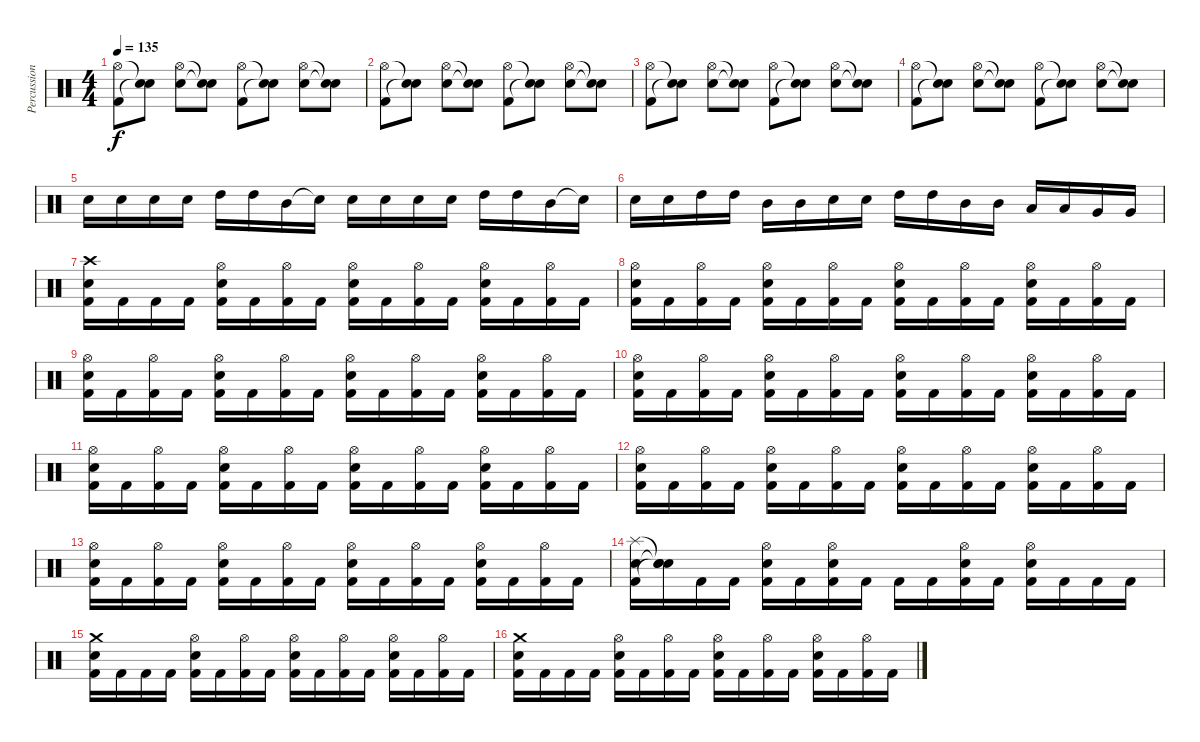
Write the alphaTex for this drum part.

\track ("Percussion" "Percussion") {instrument percussion}
\staff {score}
\articulation defaults
\ts (4 4)
\tempo 135
\clef neutral
\ks c
("Hi-Hat (open)" "Kick (hit) 2").8{dy f} ("Snare (hit)"{t} "Snare (hit)"{t}).8 ("Hi-Hat (open)" "Snare (hit) 2").8 ("Snare (hit)"{t} "Snare (hit)"{t}).8 ("Hi-Hat (open)" "Kick (hit) 2").8 ("Snare (hit)"{t} "Snare (hit)"{t}).8 ("Hi-Hat (open)" "Snare (hit) 2").8 ("Snare (hit)"{t} "Snare (hit)"{t}).8 |
("Hi-Hat (open)" "Kick (hit) 2").8 ("Snare (hit)"{t} "Snare (hit)"{t}).8 ("Hi-Hat (open)" "Snare (hit) 2").8 ("Snare (hit)"{t} "Snare (hit)"{t}).8 ("Hi-Hat (open)" "Kick (hit) 2").8 ("Snare (hit)"{t} "Snare (hit)"{t}).8 ("Hi-Hat (open)" "Snare (hit) 2").8 ("Snare (hit)"{t} "Snare (hit)"{t}).8 |
("Hi-Hat (open)" "Kick (hit) 2").8 ("Snare (hit)"{t} "Snare (hit)"{t}).8 ("Hi-Hat (open)" "Snare (hit) 2").8 ("Snare (hit)"{t} "Snare (hit)"{t}).8 ("Hi-Hat (open)" "Kick (hit) 2").8 ("Snare (hit)"{t} "Snare (hit)"{t}).8 ("Hi-Hat (open)" "Snare (hit) 2").8 ("Snare (hit)"{t} "Snare (hit)"{t}).8 |
("Hi-Hat (open)" "Kick (hit) 2").8 ("Snare (hit)"{t} "Snare (hit)"{t}).8 ("Hi-Hat (open)" "Snare (hit) 2").8 ("Snare (hit)"{t} "Snare (hit)"{t}).8 ("Hi-Hat (open)" "Kick (hit) 2").8 ("Snare (hit)"{t} "Snare (hit)"{t}).8 ("Hi-Hat (open)" "Snare (hit) 2").8 ("Snare (hit)"{t} "Snare (hit)"{t}).8 |
"Snare (hit) 2".16 "Snare (hit) 2".16 "Snare (hit) 2".16 "Snare (hit) 2".16 "High Tom (hit)".16 "High Tom (hit)".16 "Mid Tom (hit)".16 "Snare (hit)"{t}.16 "Snare (hit) 2".16 "Snare (hit) 2".16 "Snare (hit) 2".16 "Snare (hit) 2".16 "High Tom (hit)".16 "High Tom (hit)".16 "Mid Tom (hit)".16 "Snare (hit)"{t}.16 |
"Snare (hit) 2".16 "Snare (hit) 2".16 "High Tom (hit)".16 "High Tom (hit)".16 "Mid Tom (hit)".16 "Mid Tom (hit)".16 "Snare (hit) 2".16 "Snare (hit) 2".16 "High Tom (hit)".16 "High Tom (hit)".16 "Mid Tom (hit)".16 "Mid Tom (hit)".16 "Low Tom (hit)".16 "Low Tom (hit)".16 "Very Low Tom (hit)".16 "Very Low Tom (hit)".16 |
("Crash high (hit)" "Snare (hit) 2" "Kick (hit) 2").16 "Kick (hit) 2".16 "Kick (hit) 2".16 "Kick (hit) 2".16 ("Hi-Hat (open)" "Snare (hit) 2" "Kick (hit) 2").16 "Kick (hit) 2".16 ("Hi-Hat (open)" "Kick (hit) 2").16 "Kick (hit) 2".16 ("Hi-Hat (open)" "Snare (hit) 2" "Kick (hit) 2").16 "Kick (hit) 2".16 ("Hi-Hat (open)" "Kick (hit) 2").16 "Kick (hit) 2".16 ("Hi-Hat (open)" "Snare (hit) 2" "Kick (hit) 2").16 "Kick (hit) 2".16 ("Hi-Hat (open)" "Kick (hit) 2").16 "Kick (hit) 2".16 |
("Hi-Hat (open)" "Snare (hit) 2" "Kick (hit) 2").16 "Kick (hit) 2".16 ("Hi-Hat (open)" "Kick (hit) 2").16 "Kick (hit) 2".16 ("Hi-Hat (open)" "Snare (hit) 2" "Kick (hit) 2").16 "Kick (hit) 2".16 ("Hi-Hat (open)" "Kick (hit) 2").16 "Kick (hit) 2".16 ("Hi-Hat (open)" "Snare (hit) 2" "Kick (hit) 2").16 "Kick (hit) 2".16 ("Hi-Hat (open)" "Kick (hit) 2").16 "Kick (hit) 2".16 ("Hi-Hat (open)" "Snare (hit) 2" "Kick (hit) 2").16 "Kick (hit) 2".16 ("Hi-Hat (open)" "Kick (hit) 2").16 "Kick (hit) 2".16 |
("Hi-Hat (open)" "Snare (hit) 2" "Kick (hit) 2").16 "Kick (hit) 2".16 ("Hi-Hat (open)" "Kick (hit) 2").16 "Kick (hit) 2".16 ("Hi-Hat (open)" "Snare (hit) 2" "Kick (hit) 2").16 "Kick (hit) 2".16 ("Hi-Hat (open)" "Kick (hit) 2").16 "Kick (hit) 2".16 ("Hi-Hat (open)" "Snare (hit) 2" "Kick (hit) 2").16 "Kick (hit) 2".16 ("Hi-Hat (open)" "Kick (hit) 2").16 "Kick (hit) 2".16 ("Hi-Hat (open)" "Snare (hit) 2" "Kick (hit) 2").16 "Kick (hit) 2".16 ("Hi-Hat (open)" "Kick (hit) 2").16 "Kick (hit) 2".16 |
("Hi-Hat (open)" "Snare (hit) 2" "Kick (hit) 2").16 "Kick (hit) 2".16 ("Hi-Hat (open)" "Kick (hit) 2").16 "Kick (hit) 2".16 ("Hi-Hat (open)" "Snare (hit) 2" "Kick (hit) 2").16 "Kick (hit) 2".16 ("Hi-Hat (open)" "Kick (hit) 2").16 "Kick (hit) 2".16 ("Hi-Hat (open)" "Snare (hit) 2" "Kick (hit) 2").16 "Kick (hit) 2".16 ("Hi-Hat (open)" "Kick (hit) 2").16 "Kick (hit) 2".16 ("Hi-Hat (open)" "Snare (hit) 2" "Kick (hit) 2").16 "Kick (hit) 2".16 ("Hi-Hat (open)" "Kick (hit) 2").16 "Kick (hit) 2".16 |
("Hi-Hat (open)" "Snare (hit) 2" "Kick (hit) 2").16 "Kick (hit) 2".16 ("Hi-Hat (open)" "Kick (hit) 2").16 "Kick (hit) 2".16 ("Hi-Hat (open)" "Snare (hit) 2" "Kick (hit) 2").16 "Kick (hit) 2".16 ("Hi-Hat (open)" "Kick (hit) 2").16 "Kick (hit) 2".16 ("Hi-Hat (open)" "Snare (hit) 2" "Kick (hit) 2").16 "Kick (hit) 2".16 ("Hi-Hat (open)" "Kick (hit) 2").16 "Kick (hit) 2".16 ("Hi-Hat (open)" "Snare (hit) 2" "Kick (hit) 2").16 "Kick (hit) 2".16 ("Hi-Hat (open)" "Kick (hit) 2").16 "Kick (hit) 2".16 |
("Hi-Hat (open)" "Snare (hit) 2" "Kick (hit) 2").16 "Kick (hit) 2".16 ("Hi-Hat (open)" "Kick (hit) 2").16 "Kick (hit) 2".16 ("Hi-Hat (open)" "Snare (hit) 2" "Kick (hit) 2").16 "Kick (hit) 2".16 ("Hi-Hat (open)" "Kick (hit) 2").16 "Kick (hit) 2".16 ("Hi-Hat (open)" "Snare (hit) 2" "Kick (hit) 2").16 "Kick (hit) 2".16 ("Hi-Hat (open)" "Kick (hit) 2").16 "Kick (hit) 2".16 ("Hi-Hat (open)" "Snare (hit) 2" "Kick (hit) 2").16 "Kick (hit) 2".16 ("Hi-Hat (open)" "Kick (hit) 2").16 "Kick (hit) 2".16 |
("Hi-Hat (open)" "Snare (hit) 2" "Kick (hit) 2").16 "Kick (hit) 2".16 ("Hi-Hat (open)" "Kick (hit) 2").16 "Kick (hit) 2".16 ("Hi-Hat (open)" "Snare (hit) 2" "Kick (hit) 2").16 "Kick (hit) 2".16 ("Hi-Hat (open)" "Kick (hit) 2").16 "Kick (hit) 2".16 ("Hi-Hat (open)" "Snare (hit) 2" "Kick (hit) 2").16 "Kick (hit) 2".16 ("Hi-Hat (open)" "Kick (hit) 2").16 "Kick (hit) 2".16 ("Hi-Hat (open)" "Snare (hit) 2" "Kick (hit) 2").16 "Kick (hit) 2".16 ("Hi-Hat (open)" "Kick (hit) 2").16 "Kick (hit) 2".16 |
("Splash (hit)" "Snare (hit) 2" "Kick (hit) 2").16 ("Snare (hit)"{t} "Snare (hit)"{t} "Snare (hit)"{t}).16 "Kick (hit) 2".16 "Kick (hit) 2".16 ("Hi-Hat (open)" "Snare (hit) 2" "Kick (hit) 2").16 "Kick (hit) 2".16 ("Hi-Hat (open)" "Snare (hit) 2" "Kick (hit) 2").16 "Kick (hit) 2".16 "Kick (hit) 2".16 "Kick (hit) 2".16 ("Hi-Hat (open)" "Snare (hit) 2" "Kick (hit) 2").16 "Kick (hit) 2".16 ("Hi-Hat (open)" "Snare (hit) 2" "Kick (hit) 2").16 "Kick (hit) 2".16 "Kick (hit) 2".16 "Kick (hit) 2".16 |
("Crash medium (hit)" "Snare (hit) 2" "Kick (hit) 2").16 "Kick (hit) 2".16 "Kick (hit) 2".16 "Kick (hit) 2".16 ("Hi-Hat (open)" "Snare (hit) 2" "Kick (hit) 2").16 "Kick (hit) 2".16 ("Hi-Hat (open)" "Kick (hit) 2").16 "Kick (hit) 2".16 ("Hi-Hat (open)" "Snare (hit) 2" "Kick (hit) 2").16 "Kick (hit) 2".16 ("Hi-Hat (open)" "Kick (hit) 2").16 "Kick (hit) 2".16 ("Hi-Hat (open)" "Snare (hit) 2" "Kick (hit) 2").16 "Kick (hit) 2".16 ("Hi-Hat (open)" "Kick (hit) 2").16 "Kick (hit) 2".16 |
("Crash medium (hit)" "Snare (hit) 2" "Kick (hit) 2").16 "Kick (hit) 2".16 "Kick (hit) 2".16 "Kick (hit) 2".16 ("Hi-Hat (open)" "Snare (hit) 2" "Kick (hit) 2").16 "Kick (hit) 2".16 ("Hi-Hat (open)" "Kick (hit) 2").16 "Kick (hit) 2".16 ("Hi-Hat (open)" "Snare (hit) 2" "Kick (hit) 2").16 "Kick (hit) 2".16 ("Hi-Hat (open)" "Kick (hit) 2").16 "Kick (hit) 2".16 ("Hi-Hat (open)" "Snare (hit) 2" "Kick (hit) 2").16 "Kick (hit) 2".16 ("Hi-Hat (open)" "Kick (hit) 2").16 "Kick (hit) 2".16
